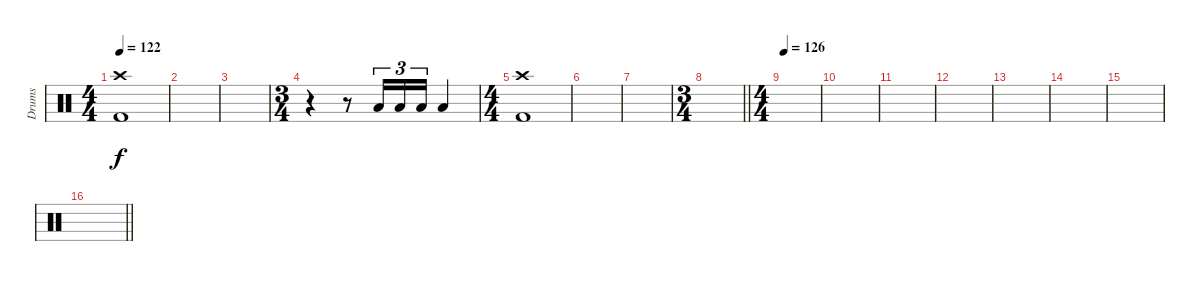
\track ("Drums" "Drums") {instrument percussion}
\staff {score}
\articulation defaults
\ts (4 4)
\tempo 122
\clef neutral
\ks c
("Crash high (hit)" "Kick (hit) 2").1{dy f} |
|
|
\ts (3 4)
r.4 r.8 "Low Tom (hit)".16{tu (3 2)} "Low Tom (hit)".16{tu (3 2)} "Low Tom (hit)".16{tu (3 2)} "Low Tom (hit)".4 |
\ts (4 4)
("Crash high (hit)" "Kick (hit) 2").1 |
|
|
\ts (3 4)
\barLineRight lightlight
|
\ts (4 4)
\section ("" "")
\tempo 126
|
|
|
|
|
|
|
\barLineRight lightlight
